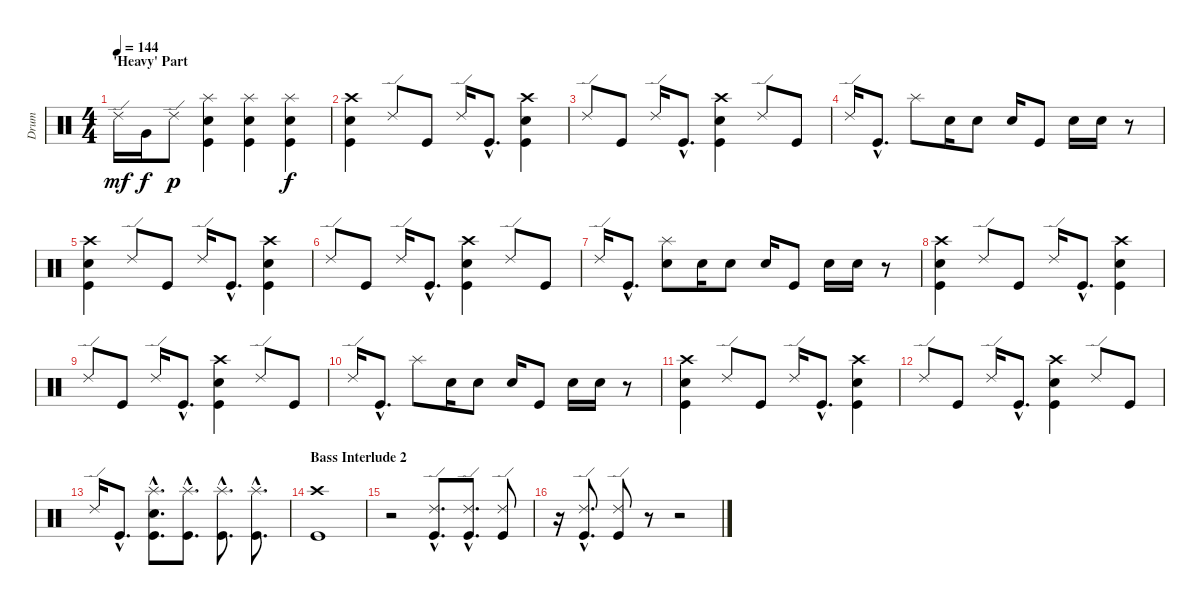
\track ("Drum" "Drum") {instrument percussion}
\staff {score}
\articulation defaults
\ts (4 4)
\section ("" "'Heavy' Part")
\tempo 144
\clef neutral
\ks c "Ride (edge) 2".16{dy mf} "Very Low Tom (hit)".16{dy f} "Ride (edge) 2".8{dy p}
("Splash (hit)" "Snare (hit) 2" "Kick (hit)").4 ("Splash (hit)" "Snare (hit) 2" "Kick (hit)").4 ("Splash (hit)" "Snare (hit) 2" "Kick (hit)").4{dy f} |
("Crash high (hit)" "Snare (hit) 2" "Kick (hit)").4 "Ride (edge) 2".8 "Kick (hit)".8 "Ride (edge) 2".16 "Kick (hit)"{hac}.8{d} ("Crash high (hit)" "Snare (hit) 2" "Kick (hit)").4 |
"Ride (edge) 2".8 "Kick (hit)".8 "Ride (edge) 2".16 "Kick (hit)"{hac}.8{d} ("Crash high (hit)" "Snare (hit) 2" "Kick (hit)").4 "Ride (edge) 2".8 "Kick (hit)".8 |
"Ride (edge) 2".16 "Kick (hit)"{hac}.8{d} "Splash (hit)".8 "Snare (hit) 2".16 "Snare (hit) 2".8 "Snare (hit) 2".16 "Kick (hit)".8 "Snare (hit) 2".16 "Snare (hit) 2".16 r.8 |
("Crash high (hit)" "Snare (hit) 2" "Kick (hit)").4 "Ride (edge) 2".8 "Kick (hit)".8 "Ride (edge) 2".16 "Kick (hit)"{hac}.8{d} ("Crash high (hit)" "Snare (hit) 2" "Kick (hit)").4 |
"Ride (edge) 2".8 "Kick (hit)".8 "Ride (edge) 2".16 "Kick (hit)"{hac}.8{d} ("Crash high (hit)" "Snare (hit) 2" "Kick (hit)").4 "Ride (edge) 2".8 "Kick (hit)".8 |
"Ride (edge) 2".16 "Kick (hit)"{hac}.8{d} ("Splash (hit)" "Snare (hit) 2").8 "Snare (hit) 2".16 "Snare (hit) 2".8 "Snare (hit) 2".16 "Kick (hit)".8 "Snare (hit) 2".16 "Snare (hit) 2".16 r.8 |
("Crash high (hit)" "Snare (hit) 2" "Kick (hit)").4 "Ride (edge) 2".8 "Kick (hit)".8 "Ride (edge) 2".16 "Kick (hit)"{hac}.8{d} ("Crash high (hit)" "Snare (hit) 2" "Kick (hit)").4 |
"Ride (edge) 2".8 "Kick (hit)".8 "Ride (edge) 2".16 "Kick (hit)"{hac}.8{d} ("Crash high (hit)" "Snare (hit) 2" "Kick (hit)").4 "Ride (edge) 2".8 "Kick (hit)".8 |
"Ride (edge) 2".16 "Kick (hit)"{hac}.8{d} "Splash (hit)".8 "Snare (hit) 2".16 "Snare (hit) 2".8 "Snare (hit) 2".16 "Kick (hit)".8 "Snare (hit) 2".16 "Snare (hit) 2".16 r.8 |
("Crash high (hit)" "Snare (hit) 2" "Kick (hit)").4 "Ride (edge) 2".8 "Kick (hit)".8 "Ride (edge) 2".16 "Kick (hit)"{hac}.8{d} ("Crash high (hit)" "Snare (hit) 2" "Kick (hit)").4 |
"Ride (edge) 2".8 "Kick (hit)".8 "Ride (edge) 2".16 "Kick (hit)"{hac}.8{d} ("Crash high (hit)" "Snare (hit) 2" "Kick (hit)").4 "Ride (edge) 2".8 "Kick (hit)".8 |
"Ride (edge) 2".16 "Kick (hit)"{hac}.8{d} ("Splash (hit)"{hac} "Snare (hit) 2"{hac} "Kick (hit)"{hac}).8{d} ("Splash (hit)"{hac} "Kick (hit)"{hac}).8{d} ("Splash (hit)"{hac} "Kick (hit)"{hac}).8{d} ("Splash (hit)"{hac} "Kick (hit)"{hac}).8{d} |
\section ("" "Bass Interlude 2")
("Crash high (hit)" "Kick (hit)").1 |
r.2 ("Ride (edge) 2"{hac} "Kick (hit)"{hac}).8{d} ("Ride (edge) 2"{hac} "Kick (hit)"{hac}).8{d} ("Ride (edge) 2" "Kick (hit)").8 |
r.16 ("Ride (edge) 2"{hac} "Kick (hit)"{hac}).8{d} ("Ride (edge) 2" "Kick (hit)").8 r.8 r.2
